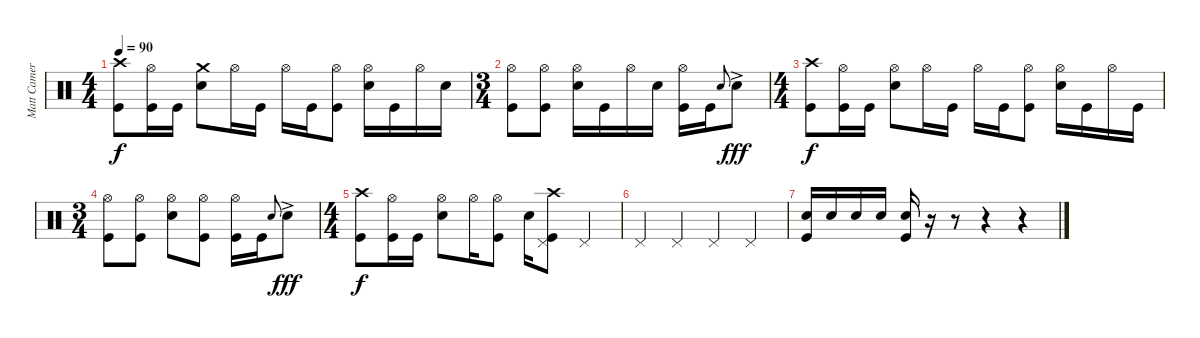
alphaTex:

\track ("Matt Cameron" "Matt Camer") {instrument percussion}
\staff {score}
\articulation defaults
\ts (4 4)
\tempo 90
\clef neutral
\ks c
("Crash high (hit)" "Kick (hit)").8{dy f} ("Hi-Hat (open)" "Kick (hit)").16 "Kick (hit)".16 ("Crash medium (hit)" "Electric Snare (hit)").8 "Hi-Hat (open)".16 "Kick (hit)".16 "Hi-Hat (open)".16 "Kick (hit)".16 ("Hi-Hat (open)" "Kick (hit)").8 ("Hi-Hat (open)" "Electric Snare (hit)").16 "Kick (hit)".16 "Hi-Hat (open)".16 "Electric Snare (hit)".16 |
\ts (3 4)
("Hi-Hat (open)" "Kick (hit)").8 ("Hi-Hat (open)" "Kick (hit)").8 ("Hi-Hat (open)" "Electric Snare (hit)").16 "Kick (hit)".16 "Hi-Hat (open)".16 "Electric Snare (hit)".16 ("Hi-Hat (open)" "Kick (hit)").16 "Kick (hit)".16 "Electric Snare (hit)".8{gr onbeat} "Electric Snare (hit)"{ac}.8{dy fff} |
\ts (4 4)
("Crash high (hit)" "Kick (hit)").8{dy f} ("Hi-Hat (open)" "Kick (hit)").16 "Kick (hit)".16 ("Hi-Hat (open)" "Electric Snare (hit)").8 "Hi-Hat (open)".16 "Kick (hit)".16 "Hi-Hat (open)".16 "Kick (hit)".16 ("Hi-Hat (open)" "Kick (hit)").8 ("Hi-Hat (open)" "Electric Snare (hit)").16 "Kick (hit)".16 "Hi-Hat (open)".16 "Kick (hit)".16 |
\ts (3 4)
("Hi-Hat (open)" "Kick (hit)").8 ("Hi-Hat (open)" "Kick (hit)").8 ("Hi-Hat (open)" "Electric Snare (hit)").8 ("Hi-Hat (open)" "Kick (hit)").8 ("Hi-Hat (open)" "Kick (hit)").16 "Kick (hit)".16 "Electric Snare (hit)".8{gr onbeat} "Electric Snare (hit)"{ac}.8{dy fff} |
\ts (4 4)
("Crash high (hit)" "Kick (hit)").8{dy f} ("Hi-Hat (open)" "Kick (hit)").16 "Kick (hit)".16 ("Hi-Hat (open)" "Electric Snare (hit)").8 "Hi-Hat (open)".16 ("Hi-Hat (open)" "Kick (hit)").8 "Electric Snare (hit)".16 ("Crash high (hit)" "Pedal Hi-Hat (hit)" "Kick (hit)").8 "Pedal Hi-Hat (hit)".4 |
"Pedal Hi-Hat (hit)".4 "Pedal Hi-Hat (hit)".4 "Pedal Hi-Hat (hit)".4 "Pedal Hi-Hat (hit)".4 |
("Electric Snare (hit)" "Kick (hit)").16 "Electric Snare (hit)".16 "Electric Snare (hit)".16 "Electric Snare (hit)".16 ("Electric Snare (hit)" "Kick (hit)").16 r.16 r.8 r.4 r.4
